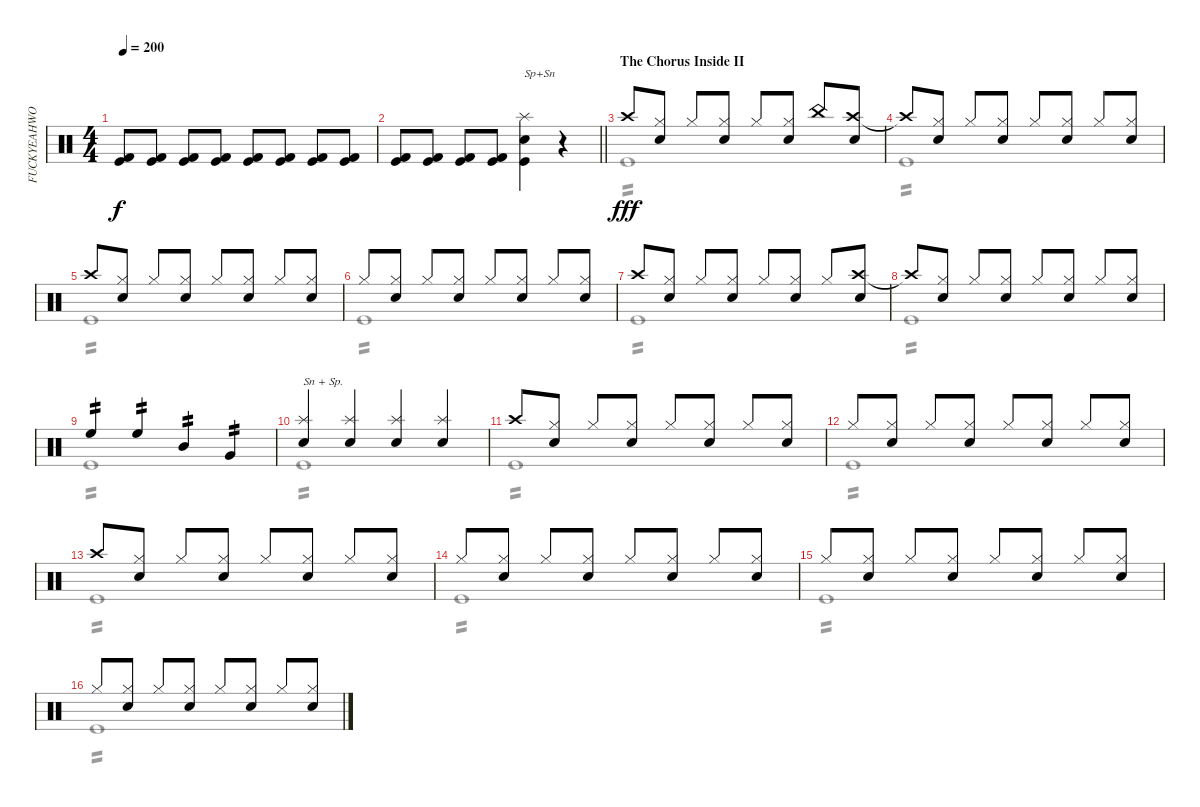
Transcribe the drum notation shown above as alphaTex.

\track ("FUCKYEAHWOOTDAVEMACKINTOSH!(Percussion)" "FUCKYEAHWO") {instrument percussion}
\staff {score}
\articulation defaults
\voice
\ts (4 4)
\tempo 200
\clef neutral
\ks c
("Kick (hit)" "Kick (hit) 2").8{dy f} ("Kick (hit)" "Kick (hit) 2").8 ("Kick (hit)" "Kick (hit) 2").8 ("Kick (hit)" "Kick (hit) 2").8 ("Kick (hit)" "Kick (hit) 2").8 ("Kick (hit)" "Kick (hit) 2").8 ("Kick (hit)" "Kick (hit) 2").8 ("Kick (hit)" "Kick (hit) 2").8 |
\barLineRight lightlight
("Kick (hit) 2" "Kick (hit)").8 ("Kick (hit)" "Kick (hit) 2").8 ("Kick (hit)" "Kick (hit) 2").8 ("Kick (hit)" "Kick (hit) 2").8 ("Kick (hit)" "Snare (hit) 2" "Splash (hit)").4{txt "Sp+Sn"} r.4 |
\section ("" "The Chorus Inside II")
"Crash high (hit)".8{dy fff} ("Hi-Hat (closed)" "Snare (hit) 2").8 "Hi-Hat (closed)".8 ("Hi-Hat (closed)" "Snare (hit) 2").8 "Hi-Hat (closed)".8 ("Hi-Hat (closed)" "Snare (hit) 2").8 "China (hit)".8 ("Crash high (hit)" "Snare (hit) 2").8 |
"Crash high (hit)"{t}.8 ("Hi-Hat (closed)" "Snare (hit) 2").8 "Hi-Hat (closed)".8 ("Hi-Hat (closed)" "Snare (hit) 2").8 "Hi-Hat (closed)".8 ("Hi-Hat (closed)" "Snare (hit) 2").8 "Hi-Hat (closed)".8 ("Hi-Hat (closed)" "Snare (hit) 2").8 |
"Crash high (hit)".8 ("Hi-Hat (closed)" "Snare (hit) 2").8 "Hi-Hat (closed)".8 ("Hi-Hat (closed)" "Snare (hit) 2").8 "Hi-Hat (closed)".8 ("Hi-Hat (closed)" "Snare (hit) 2").8 "Hi-Hat (closed)".8 ("Hi-Hat (closed)" "Snare (hit) 2").8 |
"Hi-Hat (closed)".8 ("Hi-Hat (closed)" "Snare (hit) 2").8 "Hi-Hat (closed)".8 ("Hi-Hat (closed)" "Snare (hit) 2").8 "Hi-Hat (closed)".8 ("Hi-Hat (closed)" "Snare (hit) 2").8 "Hi-Hat (closed)".8 ("Hi-Hat (closed)" "Snare (hit) 2").8 |
"Crash high (hit)".8 ("Hi-Hat (closed)" "Snare (hit) 2").8 "Hi-Hat (closed)".8 ("Hi-Hat (closed)" "Snare (hit) 2").8 "Hi-Hat (closed)".8 ("Hi-Hat (closed)" "Snare (hit) 2").8 "Hi-Hat (closed)".8 ("Crash high (hit)" "Snare (hit) 2").8 |
"Crash high (hit)"{t}.8 ("Hi-Hat (closed)" "Snare (hit) 2").8 "Hi-Hat (closed)".8 ("Hi-Hat (closed)" "Snare (hit) 2").8 "Hi-Hat (closed)".8 ("Hi-Hat (closed)" "Snare (hit) 2").8 "Hi-Hat (closed)".8 ("Hi-Hat (closed)" "Snare (hit) 2").8 |
"High Floor Tom (hit)".4{tp 2} "High Floor Tom (hit)".4{tp 2} "Mid Tom (hit)".4{tp 2} "Very Low Tom (hit)".4{tp 2} |
("Snare (hit) 2" "Splash (hit)").4{txt "Sn + Sp."} ("Snare (hit) 2" "Splash (hit)").4 ("Snare (hit) 2" "Splash (hit)").4 ("Snare (hit) 2" "Splash (hit)").4 |
"Crash high (hit)".8 ("Hi-Hat (closed)" "Snare (hit) 2").8 "Hi-Hat (closed)".8 ("Hi-Hat (closed)" "Snare (hit) 2").8 "Hi-Hat (closed)".8 ("Hi-Hat (closed)" "Snare (hit) 2").8 "Hi-Hat (closed)".8 ("Hi-Hat (closed)" "Snare (hit) 2").8 |
"Hi-Hat (closed)".8 ("Hi-Hat (closed)" "Snare (hit) 2").8 "Hi-Hat (closed)".8 ("Hi-Hat (closed)" "Snare (hit) 2").8 "Hi-Hat (closed)".8 ("Hi-Hat (closed)" "Snare (hit) 2").8 "Hi-Hat (closed)".8 ("Hi-Hat (closed)" "Snare (hit) 2").8 |
"Crash high (hit)".8 ("Hi-Hat (closed)" "Snare (hit) 2").8 "Hi-Hat (closed)".8 ("Hi-Hat (closed)" "Snare (hit) 2").8 "Hi-Hat (closed)".8 ("Hi-Hat (closed)" "Snare (hit) 2").8 "Hi-Hat (closed)".8 ("Hi-Hat (closed)" "Snare (hit) 2").8 |
"Hi-Hat (closed)".8 ("Hi-Hat (closed)" "Snare (hit) 2").8 "Hi-Hat (closed)".8 ("Hi-Hat (closed)" "Snare (hit) 2").8 "Hi-Hat (closed)".8 ("Hi-Hat (closed)" "Snare (hit) 2").8 "Hi-Hat (closed)".8 ("Hi-Hat (closed)" "Snare (hit) 2").8 |
"Hi-Hat (closed)".8 ("Hi-Hat (closed)" "Snare (hit) 2").8 "Hi-Hat (closed)".8 ("Hi-Hat (closed)" "Snare (hit) 2").8 "Hi-Hat (closed)".8 ("Hi-Hat (closed)" "Snare (hit) 2").8 "Hi-Hat (closed)".8 ("Hi-Hat (closed)" "Snare (hit) 2").8 |
"Hi-Hat (closed)".8 ("Hi-Hat (closed)" "Snare (hit) 2").8 "Hi-Hat (closed)".8 ("Hi-Hat (closed)" "Snare (hit) 2").8 "Hi-Hat (closed)".8 ("Hi-Hat (closed)" "Snare (hit) 2").8 "Hi-Hat (closed)".8 ("Hi-Hat (closed)" "Snare (hit) 2").8
\voice
\clef neutral
\ottava regular
\simile none
\ks c
|
\barLineRight lightlight
|
"Kick (hit)".1{tp 2} |
"Kick (hit)".1{tp 2} |
"Kick (hit)".1{tp 2} |
"Kick (hit)".1{tp 2} |
"Kick (hit)".1{tp 2} |
"Kick (hit)".1{tp 2} |
"Kick (hit)".1{tp 2} |
"Kick (hit)".1{tp 2} |
"Kick (hit)".1{tp 2} |
"Kick (hit)".1{tp 2} |
"Kick (hit)".1{tp 2} |
"Kick (hit)".1{tp 2} |
"Kick (hit)".1{tp 2} |
"Kick (hit)".1{tp 2}
